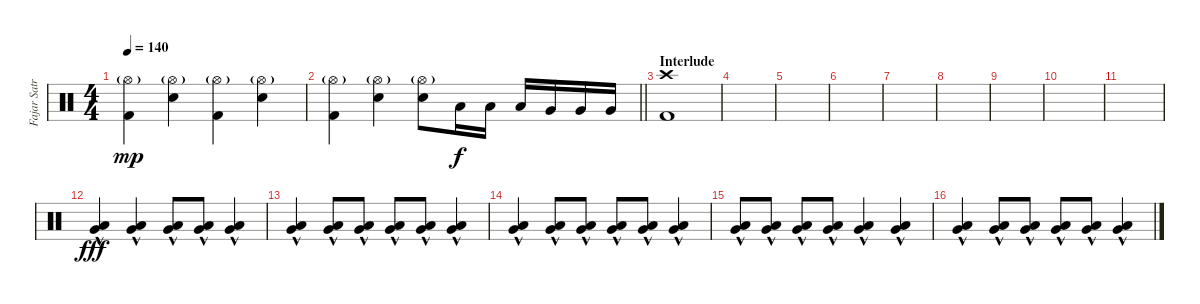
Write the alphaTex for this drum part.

\track ("Fajar Satriana" "Fajar Satr") {instrument percussion}
\staff {score}
\articulation defaults
\ts (4 4)
\tempo 140
\clef neutral
\ks c
("Hi-Hat (open)"{g} "Kick (hit) 2").4{dy mp} ("Hi-Hat (open)"{g} "Electric Snare (hit)").4 ("Hi-Hat (open)"{g} "Kick (hit) 2").4 ("Hi-Hat (open)"{g} "Electric Snare (hit)").4 |
\barLineRight lightlight
("Hi-Hat (open)"{g} "Kick (hit) 2").4 ("Hi-Hat (open)"{g} "Electric Snare (hit)").4 ("Hi-Hat (open)"{g} "Electric Snare (hit)").8 "Low Tom (hit)".16{dy f} "Low Tom (hit)".16 "Low Tom (hit)".16 "Very Low Tom (hit)".16 "Very Low Tom (hit)".16 "Very Low Tom (hit)".16 |
\section ("" "Interlude")
("Crash high (hit)" "Kick (hit) 2").1 |
|
|
|
|
|
|
|
|
("Very Low Tom (hit)"{hac} "Low Floor Tom (hit)"{hac}).4{dy fff} ("Very Low Tom (hit)"{hac} "Low Floor Tom (hit)"{hac}).4 ("Very Low Tom (hit)"{hac} "Low Floor Tom (hit)"{hac}).8 ("Low Tom (hit)"{hac} "Very Low Tom (hit)"{hac}).8 ("Very Low Tom (hit)"{hac} "Low Floor Tom (hit)"{hac}).4 |
("Very Low Tom (hit)"{hac} "Low Floor Tom (hit)"{hac}).4 ("Very Low Tom (hit)"{hac} "Low Floor Tom (hit)"{hac}).8 ("Low Tom (hit)"{hac} "Very Low Tom (hit)"{hac}).8 ("Very Low Tom (hit)"{hac} "Low Floor Tom (hit)"{hac}).8 ("Very Low Tom (hit)"{hac} "Low Floor Tom (hit)"{hac}).8 ("Very Low Tom (hit)"{hac} "Low Floor Tom (hit)"{hac}).4 |
("Very Low Tom (hit)"{hac} "Low Floor Tom (hit)"{hac}).4 ("Very Low Tom (hit)"{hac} "Low Floor Tom (hit)"{hac}).8 ("Low Tom (hit)"{hac} "Very Low Tom (hit)"{hac}).8 ("Very Low Tom (hit)"{hac} "Low Floor Tom (hit)"{hac}).8 ("Very Low Tom (hit)"{hac} "Low Floor Tom (hit)"{hac}).8 ("Very Low Tom (hit)"{hac} "Low Floor Tom (hit)"{hac}).4 |
("Very Low Tom (hit)"{hac} "Low Floor Tom (hit)"{hac}).8 ("Low Tom (hit)"{hac} "Very Low Tom (hit)"{hac}).8 ("Very Low Tom (hit)"{hac} "Low Floor Tom (hit)"{hac}).8 ("Very Low Tom (hit)"{hac} "Low Floor Tom (hit)"{hac}).8 ("Very Low Tom (hit)"{hac} "Low Floor Tom (hit)"{hac}).4 ("Very Low Tom (hit)"{hac} "Low Floor Tom (hit)"{hac}).4 |
("Very Low Tom (hit)"{hac} "Low Floor Tom (hit)"{hac}).4 ("Very Low Tom (hit)"{hac} "Low Floor Tom (hit)"{hac}).8 ("Low Tom (hit)"{hac} "Very Low Tom (hit)"{hac}).8 ("Very Low Tom (hit)"{hac} "Low Floor Tom (hit)"{hac}).8 ("Very Low Tom (hit)"{hac} "Low Floor Tom (hit)"{hac}).8 ("Very Low Tom (hit)"{hac} "Low Floor Tom (hit)"{hac}).4
